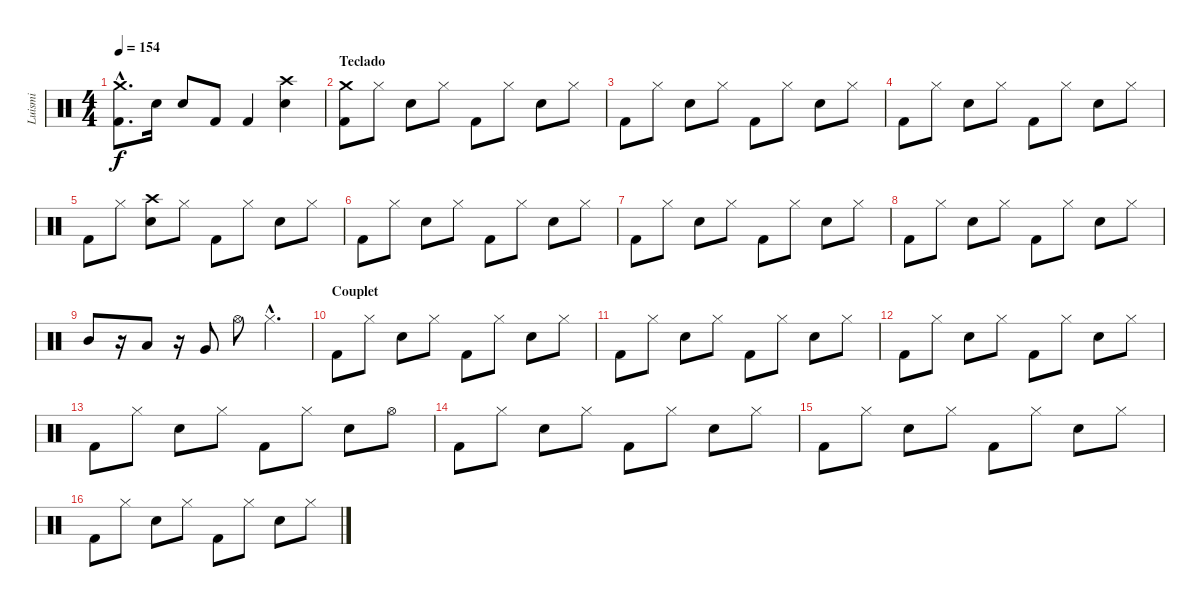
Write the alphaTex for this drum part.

\track ("Luismi" "Luismi") {instrument percussion}
\staff {score}
\articulation defaults
\ts (4 4)
\tempo 154
\clef neutral
\ks c
("Crash medium (hit)"{hac} "Kick (hit) 2"{hac}).8{d dy f} "Snare (hit) 2".16 "Snare (hit) 2".8 "Kick (hit) 2".8 "Kick (hit) 2".4 ("Crash high (hit)" "Snare (hit) 2").4 |
\section ("" "Teclado")
("Crash medium (hit)" "Kick (hit) 2").8 "Hi-Hat (closed)".8 "Snare (hit) 2".8 "Hi-Hat (closed)".8 "Kick (hit) 2".8 "Hi-Hat (closed)".8 "Snare (hit) 2".8 "Hi-Hat (closed)".8 |
"Kick (hit) 2".8 "Hi-Hat (closed)".8 "Snare (hit) 2".8 "Hi-Hat (closed)".8 "Kick (hit) 2".8 "Hi-Hat (closed)".8 "Snare (hit) 2".8 "Hi-Hat (closed)".8 |
"Kick (hit) 2".8 "Hi-Hat (closed)".8 "Snare (hit) 2".8 "Hi-Hat (closed)".8 "Kick (hit) 2".8 "Hi-Hat (closed)".8 "Snare (hit) 2".8 "Hi-Hat (closed)".8 |
"Kick (hit) 2".8 "Hi-Hat (closed)".8 ("Crash high (hit)" "Snare (hit) 2").8 "Hi-Hat (closed)".8 "Kick (hit) 2".8 "Hi-Hat (closed)".8 "Snare (hit) 2".8 "Hi-Hat (closed)".8 |
"Kick (hit) 2".8 "Hi-Hat (closed)".8 "Snare (hit) 2".8 "Hi-Hat (closed)".8 "Kick (hit) 2".8 "Hi-Hat (closed)".8 "Snare (hit) 2".8 "Hi-Hat (closed)".8 |
"Kick (hit) 2".8 "Hi-Hat (closed)".8 "Snare (hit) 2".8 "Hi-Hat (closed)".8 "Kick (hit) 2".8 "Hi-Hat (closed)".8 "Snare (hit) 2".8 "Hi-Hat (closed)".8 |
"Kick (hit) 2".8 "Hi-Hat (closed)".8 "Snare (hit) 2".8 "Hi-Hat (closed)".8 "Kick (hit) 2".8 "Hi-Hat (closed)".8 "Snare (hit) 2".8 "Hi-Hat (closed)".8 |
"Mid Tom (hit)".8 r.16 "Low Tom (hit)".8 r.16 "Very Low Tom (hit)".8 "Hi-Hat (open)".8 "Hi-Hat (closed)"{hac}.4{d} |
\section ("" "Couplet")
"Kick (hit) 2".8 "Hi-Hat (closed)".8 "Snare (hit) 2".8 "Hi-Hat (closed)".8 "Kick (hit) 2".8 "Hi-Hat (closed)".8 "Snare (hit) 2".8 "Hi-Hat (closed)".8 |
"Kick (hit) 2".8 "Hi-Hat (closed)".8 "Snare (hit) 2".8 "Hi-Hat (closed)".8 "Kick (hit) 2".8 "Hi-Hat (closed)".8 "Snare (hit) 2".8 "Hi-Hat (closed)".8 |
"Kick (hit) 2".8 "Hi-Hat (closed)".8 "Snare (hit) 2".8 "Hi-Hat (closed)".8 "Kick (hit) 2".8 "Hi-Hat (closed)".8 "Snare (hit) 2".8 "Hi-Hat (closed)".8 |
"Kick (hit) 2".8 "Hi-Hat (closed)".8 "Snare (hit) 2".8 "Hi-Hat (closed)".8 "Kick (hit) 2".8 "Hi-Hat (closed)".8 "Snare (hit) 2".8 "Hi-Hat (open)".8 |
"Kick (hit) 2".8 "Hi-Hat (closed)".8 "Snare (hit) 2".8 "Hi-Hat (closed)".8 "Kick (hit) 2".8 "Hi-Hat (closed)".8 "Snare (hit) 2".8 "Hi-Hat (closed)".8 |
"Kick (hit) 2".8 "Hi-Hat (closed)".8 "Snare (hit) 2".8 "Hi-Hat (closed)".8 "Kick (hit) 2".8 "Hi-Hat (closed)".8 "Snare (hit) 2".8 "Hi-Hat (closed)".8 |
"Kick (hit) 2".8 "Hi-Hat (closed)".8 "Snare (hit) 2".8 "Hi-Hat (closed)".8 "Kick (hit) 2".8 "Hi-Hat (closed)".8 "Snare (hit) 2".8 "Hi-Hat (closed)".8
